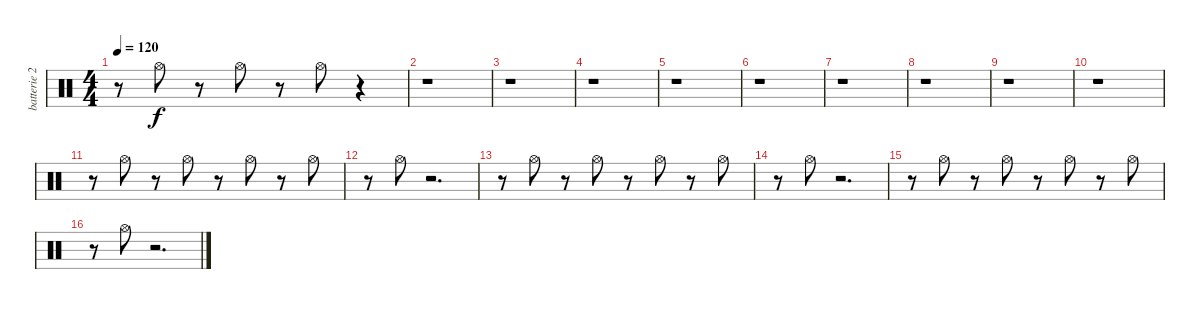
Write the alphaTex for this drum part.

\track ("batterie 2" "batterie 2") {instrument percussion}
\staff {score}
\articulation defaults
\ts (4 4)
\tempo 120
\clef neutral
\ks c
r.8{dy f} "Hi-Hat (open)".8 r.8 "Hi-Hat (open)".8 r.8 "Hi-Hat (open)".8 r.4 |
r.1 |
r.1 |
r.1 |
r.1 |
r.1 |
r.1 |
r.1 |
r.1 |
r.1 |
r.8 "Hi-Hat (open)".8 r.8 "Hi-Hat (open)".8 r.8 "Hi-Hat (open)".8 r.8 "Hi-Hat (open)".8 |
r.8 "Hi-Hat (open)".8 r.2{d} |
r.8 "Hi-Hat (open)".8 r.8 "Hi-Hat (open)".8 r.8 "Hi-Hat (open)".8 r.8 "Hi-Hat (open)".8 |
r.8 "Hi-Hat (open)".8 r.2{d} |
r.8 "Hi-Hat (open)".8 r.8 "Hi-Hat (open)".8 r.8 "Hi-Hat (open)".8 r.8 "Hi-Hat (open)".8 |
r.8 "Hi-Hat (open)".8 r.2{d}
